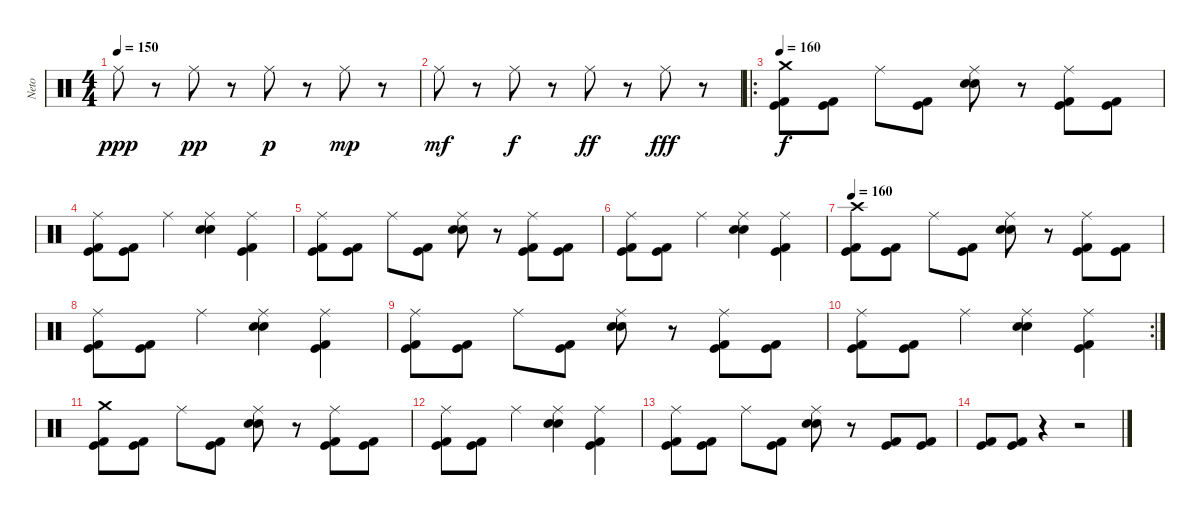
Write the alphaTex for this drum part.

\track ("Neto" "Neto") {instrument percussion}
\staff {score}
\articulation defaults
\ts (4 4)
\tempo 150
\clef neutral
\ks c "Ride (middle)".8{dy ppp}
r.8 "Ride (middle)".8{dy pp} r.8 "Ride (middle)".8{dy p} r.8 "Ride (middle)".8{dy mp} r.8 |
"Ride (middle)".8{dy mf} r.8 "Ride (middle)".8{dy f} r.8 "Ride (middle)".8{dy ff} r.8 "Ride (middle)".8{dy fff} r.8 |
\ro
\tempo 160
("Crash medium (hit)" "Kick (hit)" "Kick (hit) 2").8{dy f} ("Kick (hit)" "Kick (hit) 2").8 "Ride (middle)".8 ("Kick (hit)" "Kick (hit) 2").8 ("Ride (middle)" "Snare (hit) 2" "Snare (hit) 2").8 r.8 ("Ride (middle)" "Kick (hit)" "Kick (hit) 2").8 ("Kick (hit)" "Kick (hit) 2").8 |
("Ride (middle)" "Kick (hit)" "Kick (hit) 2").8 ("Kick (hit)" "Kick (hit) 2").8 "Ride (middle)".4 ("Ride (middle)" "Snare (hit) 2" "Snare (hit) 2").4 ("Ride (middle)" "Kick (hit)" "Kick (hit) 2").4 |
("Ride (middle)" "Kick (hit)" "Kick (hit) 2").8 ("Kick (hit)" "Kick (hit) 2").8 "Ride (middle)".8 ("Kick (hit)" "Kick (hit) 2").8 ("Ride (middle)" "Snare (hit) 2" "Snare (hit) 2").8 r.8 ("Ride (middle)" "Kick (hit)" "Kick (hit) 2").8 ("Kick (hit)" "Kick (hit) 2").8 |
("Ride (middle)" "Kick (hit)" "Kick (hit) 2").8 ("Kick (hit)" "Kick (hit) 2").8 "Ride (middle)".4 ("Ride (middle)" "Snare (hit) 2" "Snare (hit) 2").4 ("Ride (middle)" "Kick (hit)" "Kick (hit) 2").4 |
\tempo 160
("Crash high (hit)" "Kick (hit)" "Kick (hit) 2").8 ("Kick (hit)" "Kick (hit) 2").8 "Ride (middle)".8 ("Kick (hit)" "Kick (hit) 2").8 ("Ride (middle)" "Snare (hit) 2" "Snare (hit) 2").8 r.8 ("Ride (middle)" "Kick (hit)" "Kick (hit) 2").8 ("Kick (hit)" "Kick (hit) 2").8 |
("Ride (middle)" "Kick (hit)" "Kick (hit) 2").8 ("Kick (hit)" "Kick (hit) 2").8 "Ride (middle)".4 ("Ride (middle)" "Snare (hit) 2" "Snare (hit) 2").4 ("Ride (middle)" "Kick (hit)" "Kick (hit) 2").4 |
("Ride (middle)" "Kick (hit)" "Kick (hit) 2").8 ("Kick (hit)" "Kick (hit) 2").8 "Ride (middle)".8 ("Kick (hit)" "Kick (hit) 2").8 ("Ride (middle)" "Snare (hit) 2" "Snare (hit) 2").8 r.8 ("Ride (middle)" "Kick (hit)" "Kick (hit) 2").8 ("Kick (hit)" "Kick (hit) 2").8 |
\rc 2
("Ride (middle)" "Kick (hit)" "Kick (hit) 2").8 ("Kick (hit)" "Kick (hit) 2").8 "Ride (middle)".4 ("Ride (middle)" "Snare (hit) 2" "Snare (hit) 2").4 ("Ride (middle)" "Kick (hit)" "Kick (hit) 2").4 |
("Crash medium (hit)" "Kick (hit)" "Kick (hit) 2").8 ("Kick (hit)" "Kick (hit) 2").8 "Ride (middle)".8 ("Kick (hit)" "Kick (hit) 2").8 ("Ride (middle)" "Snare (hit) 2" "Snare (hit) 2").8 r.8 ("Ride (middle)" "Kick (hit)" "Kick (hit) 2").8 ("Kick (hit)" "Kick (hit) 2").8 |
("Ride (middle)" "Kick (hit)" "Kick (hit) 2").8 ("Kick (hit)" "Kick (hit) 2").8 "Ride (middle)".4 ("Ride (middle)" "Snare (hit) 2" "Snare (hit) 2").4 ("Ride (middle)" "Kick (hit)" "Kick (hit) 2").4 |
("Ride (middle)" "Kick (hit)" "Kick (hit) 2").8 ("Kick (hit)" "Kick (hit) 2").8 "Ride (middle)".8 ("Kick (hit)" "Kick (hit) 2").8 ("Ride (middle)" "Snare (hit) 2" "Snare (hit) 2").8 r.8 ("Kick (hit)" "Kick (hit) 2").8 ("Kick (hit)" "Kick (hit) 2").8 |
("Kick (hit)" "Kick (hit) 2").8 ("Kick (hit)" "Kick (hit) 2").8 r.4 r.2
